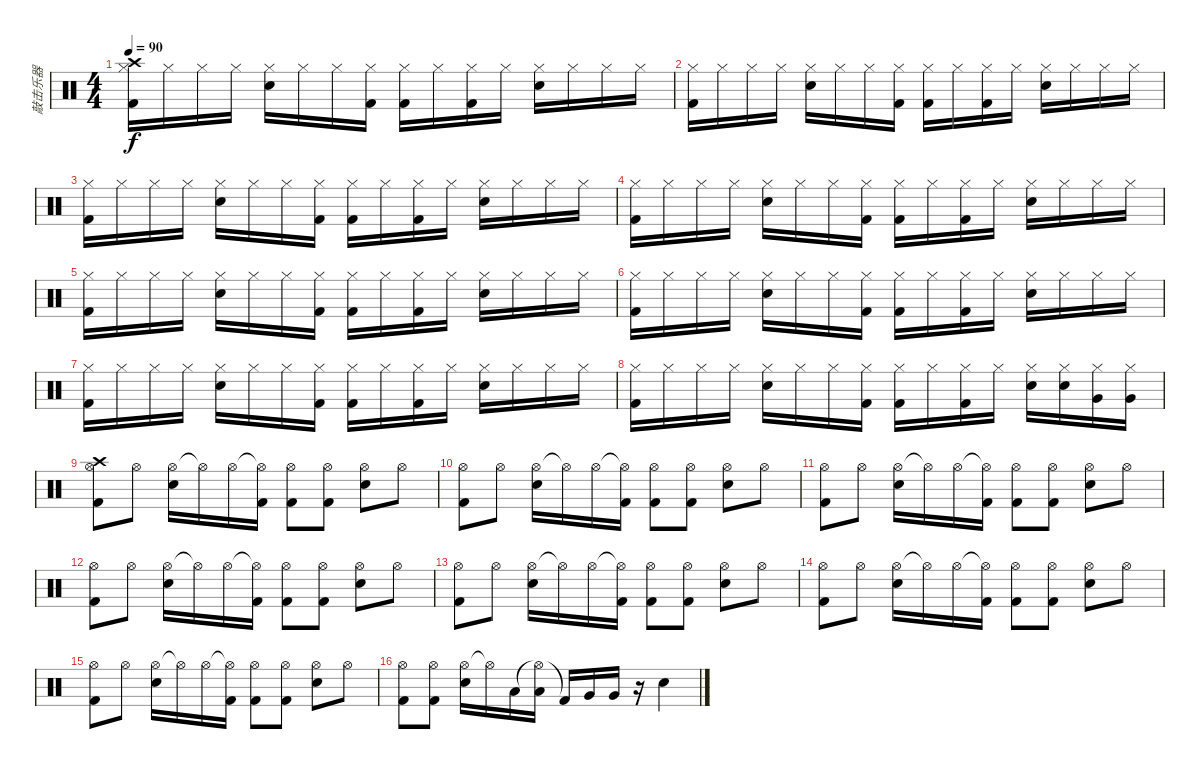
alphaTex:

\track ("敲击乐器" "敲击乐器") {instrument percussion}
\staff {score}
\articulation defaults
\ts (4 4)
\tempo 90
\clef neutral
\ks c
("Hi-Hat (closed)" "Kick (hit) 2" "Crash high (hit)").16{dy f} "Hi-Hat (closed)".16 "Hi-Hat (closed)".16 "Hi-Hat (closed)".16 ("Hi-Hat (closed)" "Electric Snare (hit)").16 "Hi-Hat (closed)".16 "Hi-Hat (closed)".16 ("Hi-Hat (closed)" "Kick (hit) 2").16 ("Hi-Hat (closed)" "Kick (hit) 2").16 "Hi-Hat (closed)".16 ("Hi-Hat (closed)" "Kick (hit) 2").16 "Hi-Hat (closed)".16 ("Hi-Hat (closed)" "Electric Snare (hit)").16 "Hi-Hat (closed)".16 "Hi-Hat (closed)".16 "Hi-Hat (closed)".16 |
("Hi-Hat (closed)" "Kick (hit) 2").16 "Hi-Hat (closed)".16 "Hi-Hat (closed)".16 "Hi-Hat (closed)".16 ("Hi-Hat (closed)" "Electric Snare (hit)").16 "Hi-Hat (closed)".16 "Hi-Hat (closed)".16 ("Hi-Hat (closed)" "Kick (hit) 2").16 ("Hi-Hat (closed)" "Kick (hit) 2").16 "Hi-Hat (closed)".16 ("Hi-Hat (closed)" "Kick (hit) 2").16 "Hi-Hat (closed)".16 ("Hi-Hat (closed)" "Electric Snare (hit)").16 "Hi-Hat (closed)".16 "Hi-Hat (closed)".16 "Hi-Hat (closed)".16 |
("Hi-Hat (closed)" "Kick (hit) 2").16 "Hi-Hat (closed)".16 "Hi-Hat (closed)".16 "Hi-Hat (closed)".16 ("Hi-Hat (closed)" "Electric Snare (hit)").16 "Hi-Hat (closed)".16 "Hi-Hat (closed)".16 ("Hi-Hat (closed)" "Kick (hit) 2").16 ("Hi-Hat (closed)" "Kick (hit) 2").16 "Hi-Hat (closed)".16 ("Hi-Hat (closed)" "Kick (hit) 2").16 "Hi-Hat (closed)".16 ("Hi-Hat (closed)" "Electric Snare (hit)").16 "Hi-Hat (closed)".16 "Hi-Hat (closed)".16 "Hi-Hat (closed)".16 |
("Hi-Hat (closed)" "Kick (hit) 2").16 "Hi-Hat (closed)".16 "Hi-Hat (closed)".16 "Hi-Hat (closed)".16 ("Hi-Hat (closed)" "Electric Snare (hit)").16 "Hi-Hat (closed)".16 "Hi-Hat (closed)".16 ("Hi-Hat (closed)" "Kick (hit) 2").16 ("Hi-Hat (closed)" "Kick (hit) 2").16 "Hi-Hat (closed)".16 ("Hi-Hat (closed)" "Kick (hit) 2").16 "Hi-Hat (closed)".16 ("Hi-Hat (closed)" "Electric Snare (hit)").16 "Hi-Hat (closed)".16 "Hi-Hat (closed)".16 "Hi-Hat (closed)".16 |
("Hi-Hat (closed)" "Kick (hit) 2").16 "Hi-Hat (closed)".16 "Hi-Hat (closed)".16 "Hi-Hat (closed)".16 ("Hi-Hat (closed)" "Electric Snare (hit)").16 "Hi-Hat (closed)".16 "Hi-Hat (closed)".16 ("Hi-Hat (closed)" "Kick (hit) 2").16 ("Hi-Hat (closed)" "Kick (hit) 2").16 "Hi-Hat (closed)".16 ("Hi-Hat (closed)" "Kick (hit) 2").16 "Hi-Hat (closed)".16 ("Hi-Hat (closed)" "Electric Snare (hit)").16 "Hi-Hat (closed)".16 "Hi-Hat (closed)".16 "Hi-Hat (closed)".16 |
("Hi-Hat (closed)" "Kick (hit) 2").16 "Hi-Hat (closed)".16 "Hi-Hat (closed)".16 "Hi-Hat (closed)".16 ("Hi-Hat (closed)" "Electric Snare (hit)").16 "Hi-Hat (closed)".16 "Hi-Hat (closed)".16 ("Hi-Hat (closed)" "Kick (hit) 2").16 ("Hi-Hat (closed)" "Kick (hit) 2").16 "Hi-Hat (closed)".16 ("Hi-Hat (closed)" "Kick (hit) 2").16 "Hi-Hat (closed)".16 ("Hi-Hat (closed)" "Electric Snare (hit)").16 "Hi-Hat (closed)".16 "Hi-Hat (closed)".16 "Hi-Hat (closed)".16 |
("Hi-Hat (closed)" "Kick (hit) 2").16 "Hi-Hat (closed)".16 "Hi-Hat (closed)".16 "Hi-Hat (closed)".16 ("Hi-Hat (closed)" "Electric Snare (hit)").16 "Hi-Hat (closed)".16 "Hi-Hat (closed)".16 ("Hi-Hat (closed)" "Kick (hit) 2").16 ("Hi-Hat (closed)" "Kick (hit) 2").16 "Hi-Hat (closed)".16 ("Hi-Hat (closed)" "Kick (hit) 2").16 "Hi-Hat (closed)".16 ("Hi-Hat (closed)" "Electric Snare (hit)").16 "Hi-Hat (closed)".16 "Hi-Hat (closed)".16 "Hi-Hat (closed)".16 |
("Hi-Hat (closed)" "Kick (hit) 2").16 "Hi-Hat (closed)".16 "Hi-Hat (closed)".16 "Hi-Hat (closed)".16 ("Hi-Hat (closed)" "Electric Snare (hit)").16 "Hi-Hat (closed)".16 "Hi-Hat (closed)".16 ("Hi-Hat (closed)" "Kick (hit) 2").16 ("Hi-Hat (closed)" "Kick (hit) 2").16 "Hi-Hat (closed)".16 ("Hi-Hat (closed)" "Kick (hit) 2").16 "Hi-Hat (closed)".16 ("Hi-Hat (closed)" "Electric Snare (hit)").16 ("Hi-Hat (closed)" "Electric Snare (hit)").16 ("Hi-Hat (closed)" "Very Low Tom (hit)").16 ("Hi-Hat (closed)" "Very Low Tom (hit)").16 |
("Hi-Hat (open)" "Kick (hit) 2" "Crash high (hit)").8 "Hi-Hat (open)".8 ("Hi-Hat (open)" "Electric Snare (hit)").16 "Hi-Hat (open)"{t}.16 "Hi-Hat (open)".16 ("Hi-Hat (open)"{t} "Kick (hit) 2").16 ("Hi-Hat (open)" "Kick (hit) 2").8 ("Hi-Hat (open)" "Kick (hit) 2").8 ("Hi-Hat (open)" "Electric Snare (hit)").8 "Hi-Hat (open)".8 |
("Hi-Hat (open)" "Kick (hit) 2").8 "Hi-Hat (open)".8 ("Hi-Hat (open)" "Electric Snare (hit)").16 "Hi-Hat (open)"{t}.16 "Hi-Hat (open)".16 ("Hi-Hat (open)"{t} "Kick (hit) 2").16 ("Hi-Hat (open)" "Kick (hit) 2").8 ("Hi-Hat (open)" "Kick (hit) 2").8 ("Hi-Hat (open)" "Electric Snare (hit)").8 "Hi-Hat (open)".8 |
("Hi-Hat (open)" "Kick (hit) 2").8 "Hi-Hat (open)".8 ("Hi-Hat (open)" "Electric Snare (hit)").16 "Hi-Hat (open)"{t}.16 "Hi-Hat (open)".16 ("Hi-Hat (open)"{t} "Kick (hit) 2").16 ("Hi-Hat (open)" "Kick (hit) 2").8 ("Hi-Hat (open)" "Kick (hit) 2").8 ("Hi-Hat (open)" "Electric Snare (hit)").8 "Hi-Hat (open)".8 |
("Hi-Hat (open)" "Kick (hit) 2").8 "Hi-Hat (open)".8 ("Hi-Hat (open)" "Electric Snare (hit)").16 "Hi-Hat (open)"{t}.16 "Hi-Hat (open)".16 ("Hi-Hat (open)"{t} "Kick (hit) 2").16 ("Hi-Hat (open)" "Kick (hit) 2").8 ("Hi-Hat (open)" "Kick (hit) 2").8 ("Hi-Hat (open)" "Electric Snare (hit)").8 "Hi-Hat (open)".8 |
("Hi-Hat (open)" "Kick (hit) 2").8 "Hi-Hat (open)".8 ("Hi-Hat (open)" "Electric Snare (hit)").16 "Hi-Hat (open)"{t}.16 "Hi-Hat (open)".16 ("Hi-Hat (open)"{t} "Kick (hit) 2").16 ("Hi-Hat (open)" "Kick (hit) 2").8 ("Hi-Hat (open)" "Kick (hit) 2").8 ("Hi-Hat (open)" "Electric Snare (hit)").8 "Hi-Hat (open)".8 |
("Hi-Hat (open)" "Kick (hit) 2").8 "Hi-Hat (open)".8 ("Hi-Hat (open)" "Electric Snare (hit)").16 "Hi-Hat (open)"{t}.16 "Hi-Hat (open)".16 ("Hi-Hat (open)"{t} "Kick (hit) 2").16 ("Hi-Hat (open)" "Kick (hit) 2").8 ("Hi-Hat (open)" "Kick (hit) 2").8 ("Hi-Hat (open)" "Electric Snare (hit)").8 "Hi-Hat (open)".8 |
("Hi-Hat (open)" "Kick (hit) 2").8 "Hi-Hat (open)".8 ("Hi-Hat (open)" "Electric Snare (hit)").16 "Hi-Hat (open)"{t}.16 "Hi-Hat (open)".16 ("Hi-Hat (open)"{t} "Kick (hit) 2").16 ("Hi-Hat (open)" "Kick (hit) 2").8 ("Hi-Hat (open)" "Kick (hit) 2").8 ("Hi-Hat (open)" "Electric Snare (hit)").8 "Hi-Hat (open)".8 |
("Hi-Hat (open)" "Kick (hit) 2").8 ("Hi-Hat (open)" "Kick (hit) 2").8 ("Hi-Hat (open)" "Electric Snare (hit)").16 "Hi-Hat (open)"{t}.16 "Low Tom (hit)".16 ("Hi-Hat (open)"{t} "Low Tom (hit)").16 "Kick (hit) 2"{t}.16 "Very Low Tom (hit)".16 "Very Low Tom (hit)".16 r.16 "Electric Snare (hit)".4
